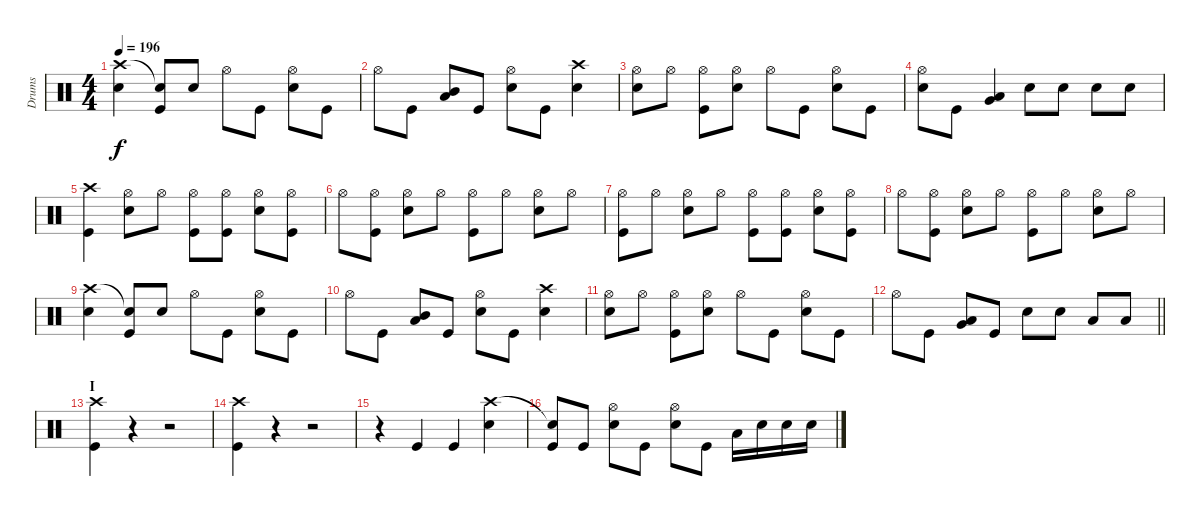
\track ("Drums" "Drums") {instrument percussion}
\staff {score}
\articulation defaults
\ts (4 4)
\tempo 196
\clef neutral
\ks c
("Crash high (hit)" "Electric Snare (hit)").4{dy f} ("Snare (hit)"{t} "Kick (hit)").8 "Electric Snare (hit)".8 "Hi-Hat (open)".8 "Kick (hit)".8 ("Hi-Hat (open)" "Electric Snare (hit)").8 "Kick (hit)".8 |
"Hi-Hat (open)".8 "Kick (hit)".8 ("Mid Tom (hit)" "Low Tom (hit)").8 "Kick (hit)".8 ("Hi-Hat (open)" "Electric Snare (hit)").8 "Kick (hit)".8 ("Crash high (hit)" "Electric Snare (hit)").4 |
("Hi-Hat (open)" "Electric Snare (hit)").8 "Hi-Hat (open)".8 ("Hi-Hat (open)" "Kick (hit)").8 ("Hi-Hat (open)" "Electric Snare (hit)").8 "Hi-Hat (open)".8 "Kick (hit)".8 ("Hi-Hat (open)" "Electric Snare (hit)").8 "Kick (hit)".8 |
("Hi-Hat (open)" "Electric Snare (hit)").8 "Kick (hit)".8 ("Low Tom (hit)" "Very Low Tom (hit)").4 "Electric Snare (hit)".8 "Electric Snare (hit)".8 "Electric Snare (hit)".8 "Electric Snare (hit)".8 |
("Crash high (hit)" "Kick (hit)").4 ("Hi-Hat (open)" "Electric Snare (hit)").8 "Hi-Hat (open)".8 ("Hi-Hat (open)" "Kick (hit)").8 ("Hi-Hat (open)" "Kick (hit)").8 ("Hi-Hat (open)" "Electric Snare (hit)").8 ("Hi-Hat (open)" "Kick (hit)").8 |
"Hi-Hat (open)".8 ("Hi-Hat (open)" "Kick (hit)").8 ("Hi-Hat (open)" "Electric Snare (hit)").8 "Hi-Hat (open)".8 ("Hi-Hat (open)" "Kick (hit)").8 "Hi-Hat (open)".8 ("Hi-Hat (open)" "Electric Snare (hit)").8 "Hi-Hat (open)".8 |
("Hi-Hat (open)" "Kick (hit)").8 "Hi-Hat (open)".8 ("Hi-Hat (open)" "Electric Snare (hit)").8 "Hi-Hat (open)".8 ("Hi-Hat (open)" "Kick (hit)").8 ("Hi-Hat (open)" "Kick (hit)").8 ("Hi-Hat (open)" "Electric Snare (hit)").8 ("Hi-Hat (open)" "Kick (hit)").8 |
"Hi-Hat (open)".8 ("Hi-Hat (open)" "Kick (hit)").8 ("Hi-Hat (open)" "Electric Snare (hit)").8 "Hi-Hat (open)".8 ("Hi-Hat (open)" "Kick (hit)").8 "Hi-Hat (open)".8 ("Hi-Hat (open)" "Electric Snare (hit)").8 "Hi-Hat (open)".8 |
("Crash high (hit)" "Electric Snare (hit)").4 ("Snare (hit)"{t} "Kick (hit)").8 "Electric Snare (hit)".8 "Hi-Hat (open)".8 "Kick (hit)".8 ("Hi-Hat (open)" "Electric Snare (hit)").8 "Kick (hit)".8 |
"Hi-Hat (open)".8 "Kick (hit)".8 ("Mid Tom (hit)" "Low Tom (hit)").8 "Kick (hit)".8 ("Hi-Hat (open)" "Electric Snare (hit)").8 "Kick (hit)".8 ("Crash high (hit)" "Electric Snare (hit)").4 |
("Hi-Hat (open)" "Electric Snare (hit)").8 "Hi-Hat (open)".8 ("Hi-Hat (open)" "Kick (hit)").8 ("Hi-Hat (open)" "Electric Snare (hit)").8 "Hi-Hat (open)".8 "Kick (hit)".8 ("Hi-Hat (open)" "Electric Snare (hit)").8 "Kick (hit)".8 |
\barLineRight lightlight "Hi-Hat (open)".8 "Kick (hit)".8
("Low Tom (hit)" "Very Low Tom (hit)").8 "Kick (hit)".8 "Electric Snare (hit)".8 "Electric Snare (hit)".8 "Low Tom (hit)".8 "Low Tom (hit)".8 |
\section ("" "I")
("Crash high (hit)" "Kick (hit)").4 r.4 r.2 |
("Crash high (hit)" "Kick (hit)").4 r.4 r.2 |
r.4 "Kick (hit)".4 "Kick (hit)".4 ("Crash high (hit)" "Electric Snare (hit)").4 |
("Snare (hit)"{t} "Kick (hit)").8 "Kick (hit)".8 ("Hi-Hat (open)" "Electric Snare (hit)").8 "Kick (hit)".8 ("Hi-Hat (open)" "Electric Snare (hit)").8 "Kick (hit)".8 "Low Tom (hit)".16 "Electric Snare (hit)".16 "Electric Snare (hit)".16 "Electric Snare (hit)".16
